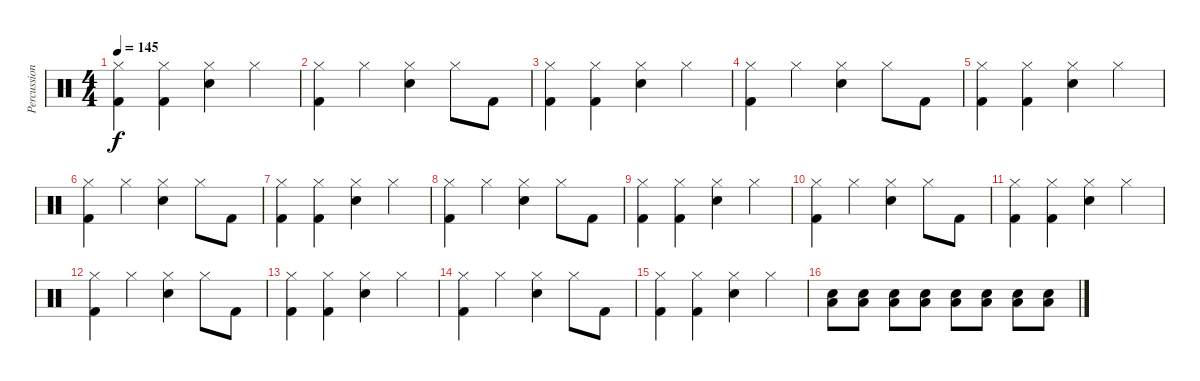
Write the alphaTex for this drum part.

\track ("Percussion" "Percussion") {instrument percussion}
\staff {score}
\articulation defaults
\ts (4 4)
\tempo 145
\clef neutral
\ks c
("Hi-Hat (closed)" "Kick (hit) 2").4{dy f} ("Hi-Hat (closed)" "Kick (hit) 2").4 ("Hi-Hat (closed)" "Snare (hit) 2").4 "Hi-Hat (closed)".4 |
("Hi-Hat (closed)" "Kick (hit) 2").4 "Hi-Hat (closed)".4 ("Hi-Hat (closed)" "Snare (hit) 2").4 "Hi-Hat (closed)".8 "Kick (hit) 2".8 |
("Hi-Hat (closed)" "Kick (hit) 2").4 ("Hi-Hat (closed)" "Kick (hit) 2").4 ("Hi-Hat (closed)" "Snare (hit) 2").4 "Hi-Hat (closed)".4 |
("Hi-Hat (closed)" "Kick (hit) 2").4 "Hi-Hat (closed)".4 ("Hi-Hat (closed)" "Snare (hit) 2").4 "Hi-Hat (closed)".8 "Kick (hit) 2".8 |
("Hi-Hat (closed)" "Kick (hit) 2").4 ("Hi-Hat (closed)" "Kick (hit) 2").4 ("Hi-Hat (closed)" "Snare (hit) 2").4 "Hi-Hat (closed)".4 |
("Hi-Hat (closed)" "Kick (hit) 2").4 "Hi-Hat (closed)".4 ("Hi-Hat (closed)" "Snare (hit) 2").4 "Hi-Hat (closed)".8 "Kick (hit) 2".8 |
("Hi-Hat (closed)" "Kick (hit) 2").4 ("Hi-Hat (closed)" "Kick (hit) 2").4 ("Hi-Hat (closed)" "Snare (hit) 2").4 "Hi-Hat (closed)".4 |
("Hi-Hat (closed)" "Kick (hit) 2").4 "Hi-Hat (closed)".4 ("Hi-Hat (closed)" "Snare (hit) 2").4 "Hi-Hat (closed)".8 "Kick (hit) 2".8 |
("Hi-Hat (closed)" "Kick (hit) 2").4 ("Hi-Hat (closed)" "Kick (hit) 2").4 ("Hi-Hat (closed)" "Snare (hit) 2").4 "Hi-Hat (closed)".4 |
("Hi-Hat (closed)" "Kick (hit) 2").4 "Hi-Hat (closed)".4 ("Hi-Hat (closed)" "Snare (hit) 2").4 "Hi-Hat (closed)".8 "Kick (hit) 2".8 |
("Hi-Hat (closed)" "Kick (hit) 2").4 ("Hi-Hat (closed)" "Kick (hit) 2").4 ("Hi-Hat (closed)" "Snare (hit) 2").4 "Hi-Hat (closed)".4 |
("Hi-Hat (closed)" "Kick (hit) 2").4 "Hi-Hat (closed)".4 ("Hi-Hat (closed)" "Snare (hit) 2").4 "Hi-Hat (closed)".8 "Kick (hit) 2".8 |
("Hi-Hat (closed)" "Kick (hit) 2").4 ("Hi-Hat (closed)" "Kick (hit) 2").4 ("Hi-Hat (closed)" "Snare (hit) 2").4 "Hi-Hat (closed)".4 |
("Hi-Hat (closed)" "Kick (hit) 2").4 "Hi-Hat (closed)".4 ("Hi-Hat (closed)" "Snare (hit) 2").4 "Hi-Hat (closed)".8 "Kick (hit) 2".8 |
("Hi-Hat (closed)" "Kick (hit) 2").4 ("Hi-Hat (closed)" "Kick (hit) 2").4 ("Hi-Hat (closed)" "Snare (hit) 2").4 "Hi-Hat (closed)".4 |
("Snare (hit) 2" "Low Tom (hit)").8{volume 5} ("Snare (hit) 2" "Low Tom (hit)").8{volume 6} ("Snare (hit) 2" "Low Tom (hit)").8{volume 7} ("Snare (hit) 2" "Low Tom (hit)").8{volume 8} ("Snare (hit) 2" "Low Tom (hit)").8{volume 9} ("Snare (hit) 2" "Low Tom (hit)").8{volume 10} ("Snare (hit) 2" "Low Tom (hit)").8{volume 11} ("Snare (hit) 2" "Low Tom (hit)").8{volume 12}
